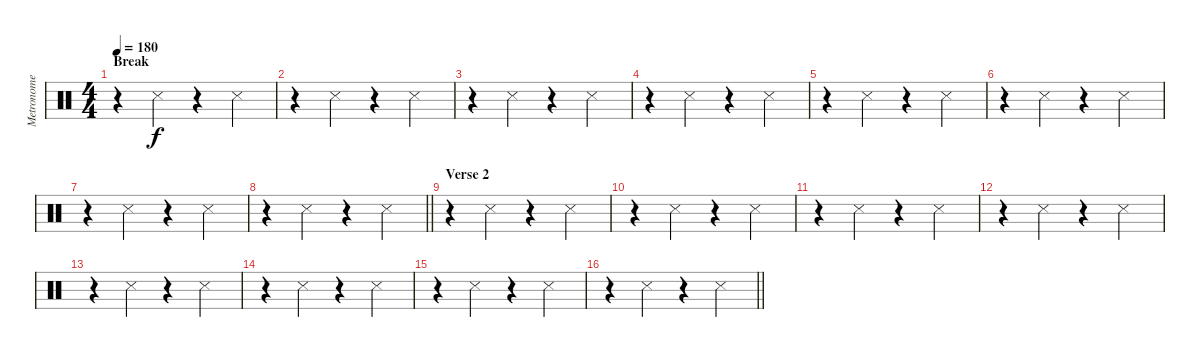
\track ("Metronome" "Metronome") {instrument percussion}
\staff {score}
\articulation defaults
\ts (4 4)
\section ("" "Break")
\tempo 180
\clef neutral
\ks c
r.4{dy f} "Metronome (hit)".4 r.4 "Metronome (hit)".4 |
r.4 "Metronome (hit)".4 r.4 "Metronome (hit)".4 |
r.4 "Metronome (hit)".4 r.4 "Metronome (hit)".4 |
r.4 "Metronome (hit)".4 r.4 "Metronome (hit)".4 |
r.4 "Metronome (hit)".4 r.4 "Metronome (hit)".4 |
r.4 "Metronome (hit)".4 r.4 "Metronome (hit)".4 |
r.4 "Metronome (hit)".4 r.4 "Metronome (hit)".4 |
\barLineRight lightlight
r.4 "Metronome (hit)".4 r.4 "Metronome (hit)".4 |
\section ("" "Verse 2")
r.4 "Metronome (hit)".4 r.4 "Metronome (hit)".4 |
r.4 "Metronome (hit)".4 r.4 "Metronome (hit)".4 |
r.4 "Metronome (hit)".4 r.4 "Metronome (hit)".4 |
r.4 "Metronome (hit)".4 r.4 "Metronome (hit)".4 |
r.4 "Metronome (hit)".4 r.4 "Metronome (hit)".4 |
r.4 "Metronome (hit)".4 r.4 "Metronome (hit)".4 |
r.4 "Metronome (hit)".4 r.4 "Metronome (hit)".4 |
\barLineRight lightlight
r.4 "Metronome (hit)".4 r.4 "Metronome (hit)".4
